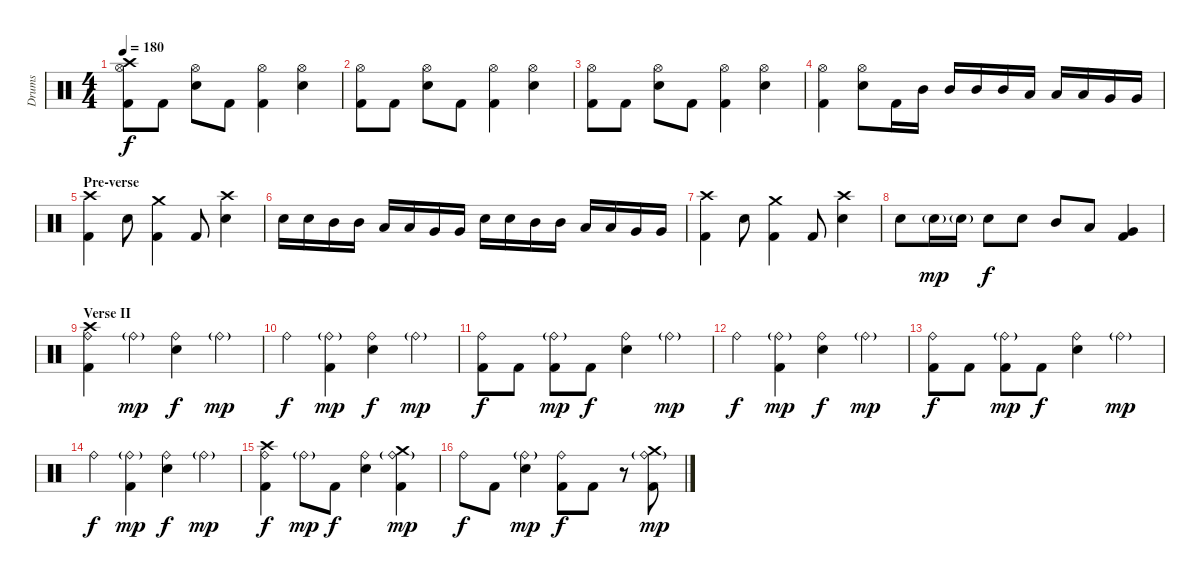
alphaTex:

\track ("Drums" "Drums") {instrument percussion}
\staff {score}
\articulation defaults
\ts (4 4)
\tempo 180
\clef neutral
\ks c
("Hi-Hat (open)" "Kick (hit) 2" "Crash high (hit)").8{dy f} "Kick (hit) 2".8 ("Hi-Hat (open)" "Electric Snare (hit)").8 "Kick (hit) 2".8 ("Hi-Hat (open)" "Kick (hit) 2").4 ("Hi-Hat (open)" "Electric Snare (hit)").4 |
("Hi-Hat (open)" "Kick (hit) 2").8 "Kick (hit) 2".8 ("Hi-Hat (open)" "Electric Snare (hit)").8 "Kick (hit) 2".8 ("Hi-Hat (open)" "Kick (hit) 2").4 ("Hi-Hat (open)" "Electric Snare (hit)").4 |
("Hi-Hat (open)" "Kick (hit) 2").8 "Kick (hit) 2".8 ("Hi-Hat (open)" "Electric Snare (hit)").8 "Kick (hit) 2".8 ("Hi-Hat (open)" "Kick (hit) 2").4 ("Hi-Hat (open)" "Electric Snare (hit)").4 |
("Hi-Hat (open)" "Kick (hit) 2").4 ("Hi-Hat (open)" "Electric Snare (hit)").8 "Kick (hit) 2".16 "Mid Tom (hit)".16 "Mid Tom (hit)".16 "Mid Tom (hit)".16 "Mid Tom (hit)".16 "Low Tom (hit)".16 "Low Tom (hit)".16 "Low Tom (hit)".16 "Very Low Tom (hit)".16 "Very Low Tom (hit)".16 |
\section ("" "Pre-verse")
("Kick (hit) 2" "Crash high (hit)").4 "Electric Snare (hit)".8 ("Kick (hit) 2" "Crash medium (hit)").4 "Kick (hit) 2".8 ("Electric Snare (hit)" "Crash high (hit)").4 |
"Electric Snare (hit)".16 "Electric Snare (hit)".16 "Mid Tom (hit)".16 "Mid Tom (hit)".16 "Low Tom (hit)".16 "Low Tom (hit)".16 "Very Low Tom (hit)".16 "Very Low Tom (hit)".16 "Electric Snare (hit)".16 "Electric Snare (hit)".16 "Mid Tom (hit)".16 "Mid Tom (hit)".16 "Low Tom (hit)".16 "Low Tom (hit)".16 "Very Low Tom (hit)".16 "Very Low Tom (hit)".16 |
("Kick (hit) 2" "Crash high (hit)").4 "Electric Snare (hit)".8 ("Kick (hit) 2" "Crash medium (hit)").4 "Kick (hit) 2".8 ("Electric Snare (hit)" "Crash high (hit)").4 |
"Electric Snare (hit)".8 "Electric Snare (hit)"{g}.16{dy mp} "Electric Snare (hit)"{g}.16 "Electric Snare (hit)".8{dy f} "Electric Snare (hit)".8 "Mid Tom (hit)".8 "Low Tom (hit)".8 ("Very Low Tom (hit)" "Kick (hit) 2").4 |
\section ("" "Verse II")
("Ride (bell)" "Kick (hit) 2" "Crash high (hit)").4 "Ride (bell)"{g}.4{dy mp} ("Ride (bell)" "Electric Snare (hit)").4{dy f} "Ride (bell)"{g}.4{dy mp} |
"Ride (bell)".4{dy f} ("Ride (bell)"{g} "Kick (hit) 2").4{dy mp} ("Ride (bell)" "Electric Snare (hit)").4{dy f} "Ride (bell)"{g}.4{dy mp} |
("Ride (bell)" "Kick (hit) 2").8{dy f} "Kick (hit) 2".8 ("Ride (bell)"{g} "Kick (hit) 2").8{dy mp} "Kick (hit) 2".8{dy f} ("Ride (bell)" "Electric Snare (hit)").4 "Ride (bell)"{g}.4{dy mp} |
"Ride (bell)".4{dy f} ("Ride (bell)"{g} "Kick (hit) 2").4{dy mp} ("Ride (bell)" "Electric Snare (hit)").4{dy f} "Ride (bell)"{g}.4{dy mp} |
("Ride (bell)" "Kick (hit) 2").8{dy f} "Kick (hit) 2".8 ("Ride (bell)"{g} "Kick (hit) 2").8{dy mp} "Kick (hit) 2".8{dy f} ("Ride (bell)" "Electric Snare (hit)").4 "Ride (bell)"{g}.4{dy mp} |
"Ride (bell)".4{dy f} ("Ride (bell)"{g} "Kick (hit) 2").4{dy mp} ("Ride (bell)" "Electric Snare (hit)").4{dy f} "Ride (bell)"{g}.4{dy mp} |
("Ride (bell)" "Kick (hit) 2" "Crash high (hit)").4{dy f} "Ride (bell)"{g}.8{dy mp} "Kick (hit) 2".8{dy f} ("Ride (bell)" "Electric Snare (hit)").4 ("Ride (bell)"{g} "Kick (hit) 2" "Crash medium (hit)").4{dy mp} |
"Ride (bell)".8{dy f} "Kick (hit) 2".8 ("Ride (bell)"{g} "Electric Snare (hit)").4{dy mp} ("Ride (bell)" "Kick (hit) 2").8{dy f} "Kick (hit) 2".8 r.8 ("Ride (bell)"{g} "Kick (hit) 2" "Crash medium (hit)").8{dy mp}
